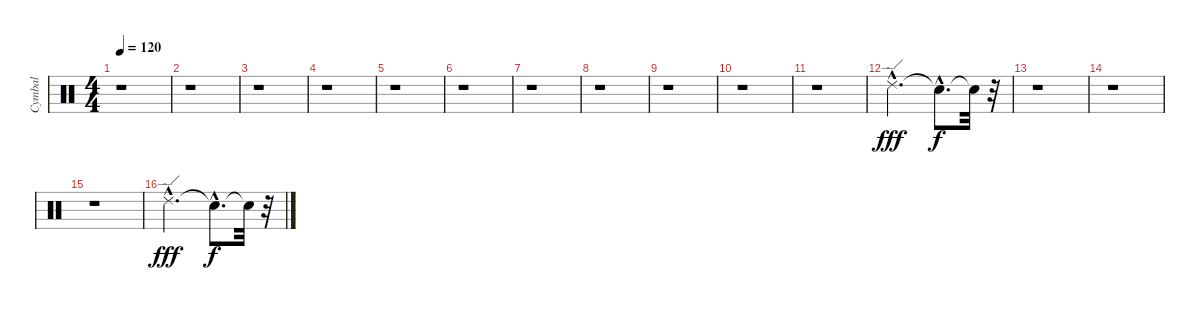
\track ("Cymbal" "Cymbal") {instrument percussion}
\staff {score}
\articulation defaults
\ts (4 4)
\tempo 120
\clef neutral
\ks c
r.1{dy f} |
r.1 |
r.1 |
r.1 |
r.1 |
r.1 |
r.1 |
r.1 |
r.1 |
r.1 |
r.1 |
"Ride (edge) 2"{hac}.2{d dy fff} "Snare (hit)"{hac t}.8{d dy f} "Snare (hit)"{t}.32 r.32 |
r.1 |
r.1 |
r.1 |
"Ride (edge) 2"{hac}.2{d dy fff} "Snare (hit)"{hac t}.8{d dy f} "Snare (hit)"{t}.32 r.32
